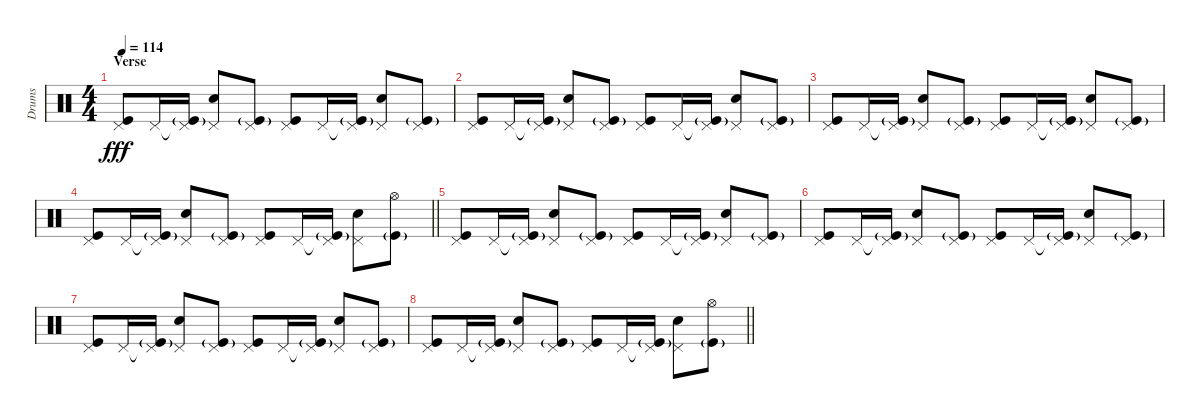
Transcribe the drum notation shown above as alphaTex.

\track ("Drums" "Drums") {instrument percussion}
\staff {score}
\articulation defaults
\ts (4 4)
\section ("" "Verse")
\tempo 114
\clef neutral
\ks c
("Pedal Hi-Hat (hit)" "Kick (hit)").8{dy fff} "Pedal Hi-Hat (hit)".16 ("Pedal Hi-Hat (hit)"{t} "Kick (hit)"{g}).16 ("Pedal Hi-Hat (hit)" "Snare (hit) 2").8 ("Pedal Hi-Hat (hit)" "Kick (hit)"{g}).8 ("Pedal Hi-Hat (hit)" "Kick (hit)").8 "Pedal Hi-Hat (hit)".16 ("Pedal Hi-Hat (hit)"{t} "Kick (hit)"{g}).16 ("Pedal Hi-Hat (hit)" "Snare (hit) 2").8 ("Pedal Hi-Hat (hit)" "Kick (hit)"{g}).8 |
("Pedal Hi-Hat (hit)" "Kick (hit)").8 "Pedal Hi-Hat (hit)".16 ("Pedal Hi-Hat (hit)"{t} "Kick (hit)"{g}).16 ("Pedal Hi-Hat (hit)" "Snare (hit) 2").8 ("Pedal Hi-Hat (hit)" "Kick (hit)"{g}).8 ("Pedal Hi-Hat (hit)" "Kick (hit)").8 "Pedal Hi-Hat (hit)".16 ("Pedal Hi-Hat (hit)"{t} "Kick (hit)"{g}).16 ("Pedal Hi-Hat (hit)" "Snare (hit) 2").8 ("Pedal Hi-Hat (hit)" "Kick (hit)"{g}).8 |
("Pedal Hi-Hat (hit)" "Kick (hit)").8 "Pedal Hi-Hat (hit)".16 ("Pedal Hi-Hat (hit)"{t} "Kick (hit)"{g}).16 ("Pedal Hi-Hat (hit)" "Snare (hit) 2").8 ("Pedal Hi-Hat (hit)" "Kick (hit)"{g}).8 ("Pedal Hi-Hat (hit)" "Kick (hit)").8 "Pedal Hi-Hat (hit)".16 ("Pedal Hi-Hat (hit)"{t} "Kick (hit)"{g}).16 ("Pedal Hi-Hat (hit)" "Snare (hit) 2").8 ("Pedal Hi-Hat (hit)" "Kick (hit)"{g}).8 |
\barLineRight lightlight
("Pedal Hi-Hat (hit)" "Kick (hit)").8 "Pedal Hi-Hat (hit)".16 ("Pedal Hi-Hat (hit)"{t} "Kick (hit)"{g}).16 ("Pedal Hi-Hat (hit)" "Snare (hit) 2").8 ("Pedal Hi-Hat (hit)" "Kick (hit)"{g}).8 ("Pedal Hi-Hat (hit)" "Kick (hit)").8 "Pedal Hi-Hat (hit)".16 ("Pedal Hi-Hat (hit)"{t} "Kick (hit)"{g}).16 ("Pedal Hi-Hat (hit)" "Snare (hit) 2").8 ("Hi-Hat (open)" "Kick (hit)"{g}).8 |
("Pedal Hi-Hat (hit)" "Kick (hit)").8 "Pedal Hi-Hat (hit)".16 ("Pedal Hi-Hat (hit)"{t} "Kick (hit)"{g}).16 ("Pedal Hi-Hat (hit)" "Snare (hit) 2").8 ("Pedal Hi-Hat (hit)" "Kick (hit)"{g}).8 ("Pedal Hi-Hat (hit)" "Kick (hit)").8 "Pedal Hi-Hat (hit)".16 ("Pedal Hi-Hat (hit)"{t} "Kick (hit)"{g}).16 ("Pedal Hi-Hat (hit)" "Snare (hit) 2").8 ("Pedal Hi-Hat (hit)" "Kick (hit)"{g}).8 |
("Pedal Hi-Hat (hit)" "Kick (hit)").8 "Pedal Hi-Hat (hit)".16 ("Pedal Hi-Hat (hit)"{t} "Kick (hit)"{g}).16 ("Pedal Hi-Hat (hit)" "Snare (hit) 2").8 ("Pedal Hi-Hat (hit)" "Kick (hit)"{g}).8 ("Pedal Hi-Hat (hit)" "Kick (hit)").8 "Pedal Hi-Hat (hit)".16 ("Pedal Hi-Hat (hit)"{t} "Kick (hit)"{g}).16 ("Pedal Hi-Hat (hit)" "Snare (hit) 2").8 ("Pedal Hi-Hat (hit)" "Kick (hit)"{g}).8 |
("Pedal Hi-Hat (hit)" "Kick (hit)").8 "Pedal Hi-Hat (hit)".16 ("Pedal Hi-Hat (hit)"{t} "Kick (hit)"{g}).16 ("Pedal Hi-Hat (hit)" "Snare (hit) 2").8 ("Pedal Hi-Hat (hit)" "Kick (hit)"{g}).8 ("Pedal Hi-Hat (hit)" "Kick (hit)").8 "Pedal Hi-Hat (hit)".16 ("Pedal Hi-Hat (hit)"{t} "Kick (hit)"{g}).16 ("Pedal Hi-Hat (hit)" "Snare (hit) 2").8 ("Pedal Hi-Hat (hit)" "Kick (hit)"{g}).8 |
\barLineRight lightlight
("Pedal Hi-Hat (hit)" "Kick (hit)").8 "Pedal Hi-Hat (hit)".16 ("Pedal Hi-Hat (hit)"{t} "Kick (hit)"{g}).16 ("Pedal Hi-Hat (hit)" "Snare (hit) 2").8 ("Pedal Hi-Hat (hit)" "Kick (hit)"{g}).8 ("Pedal Hi-Hat (hit)" "Kick (hit)").8 "Pedal Hi-Hat (hit)".16 ("Pedal Hi-Hat (hit)"{t} "Kick (hit)"{g}).16 ("Pedal Hi-Hat (hit)" "Snare (hit) 2").8 ("Hi-Hat (open)" "Kick (hit)"{g}).8
